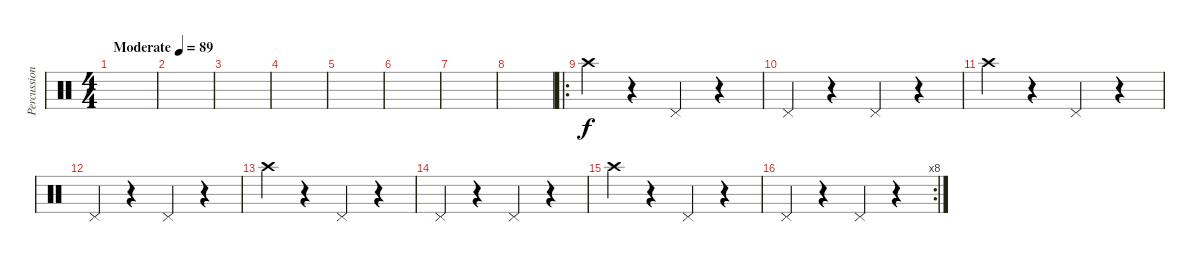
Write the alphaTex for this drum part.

\track ("Percussion" "Percussion") {instrument percussion}
\staff {score}
\articulation defaults
\ts (4 4)
\tempo (89 "Moderate")
\clef neutral
\ks c
|
|
|
|
|
|
|
|
\ro "Crash high (hit)".4
r.4 "Pedal Hi-Hat (hit)".4 r.4 |
"Pedal Hi-Hat (hit)".4 r.4 "Pedal Hi-Hat (hit)".4 r.4 |
"Crash high (hit)".4 r.4 "Pedal Hi-Hat (hit)".4 r.4 |
"Pedal Hi-Hat (hit)".4 r.4 "Pedal Hi-Hat (hit)".4 r.4 |
"Crash high (hit)".4 r.4 "Pedal Hi-Hat (hit)".4 r.4 |
"Pedal Hi-Hat (hit)".4 r.4 "Pedal Hi-Hat (hit)".4 r.4 |
"Crash high (hit)".4 r.4 "Pedal Hi-Hat (hit)".4 r.4 |
\rc 8 "Pedal Hi-Hat (hit)".4
r.4 "Pedal Hi-Hat (hit)".4 r.4
